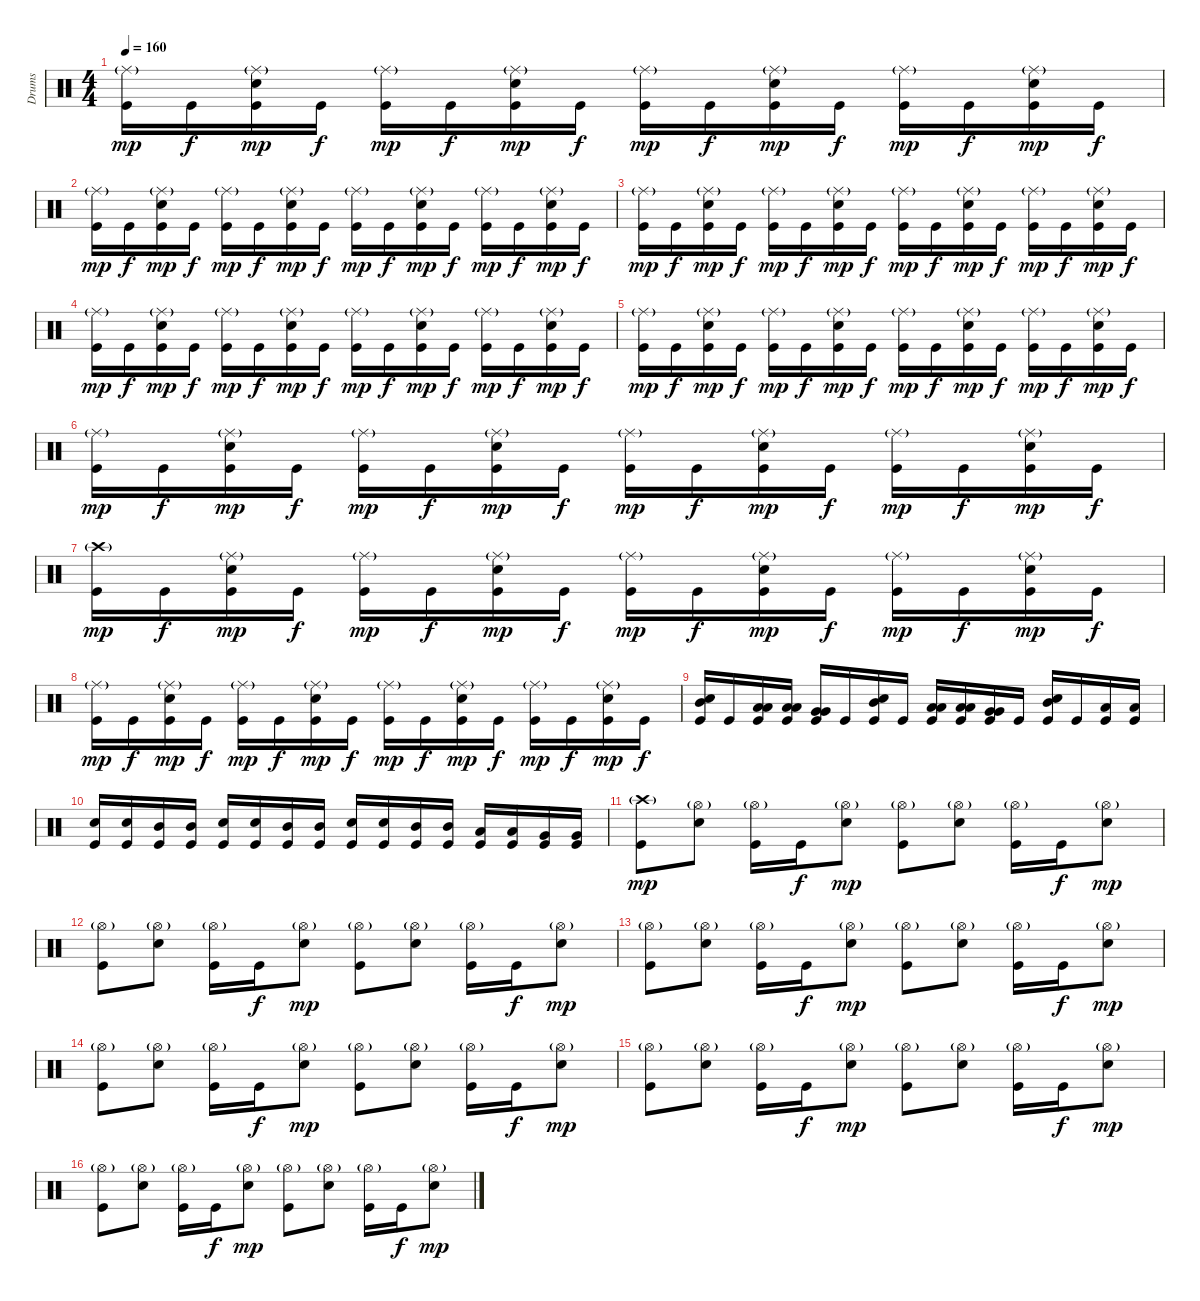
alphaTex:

\track ("Drums" "Drums") {instrument percussion}
\staff {score}
\articulation defaults
\ts (4 4)
\tempo 160
\clef neutral
\ks c
("Ride (middle)"{g} "Kick (hit)").16{dy mp} "Kick (hit)".16{dy f} ("Ride (middle)"{g} "Snare (hit) 2" "Kick (hit)").16{dy mp} "Kick (hit)".16{dy f} ("Ride (middle)"{g} "Kick (hit)").16{dy mp} "Kick (hit)".16{dy f} ("Ride (middle)"{g} "Snare (hit) 2" "Kick (hit)").16{dy mp} "Kick (hit)".16{dy f} ("Ride (middle)"{g} "Kick (hit)").16{dy mp} "Kick (hit)".16{dy f} ("Ride (middle)"{g} "Snare (hit) 2" "Kick (hit)").16{dy mp} "Kick (hit)".16{dy f} ("Ride (middle)"{g} "Kick (hit)").16{dy mp} "Kick (hit)".16{dy f} ("Ride (middle)"{g} "Snare (hit) 2" "Kick (hit)").16{dy mp} "Kick (hit)".16{dy f} |
("Ride (middle)"{g} "Kick (hit)").16{dy mp} "Kick (hit)".16{dy f} ("Ride (middle)"{g} "Snare (hit) 2" "Kick (hit)").16{dy mp} "Kick (hit)".16{dy f} ("Ride (middle)"{g} "Kick (hit)").16{dy mp} "Kick (hit)".16{dy f} ("Ride (middle)"{g} "Snare (hit) 2" "Kick (hit)").16{dy mp} "Kick (hit)".16{dy f} ("Ride (middle)"{g} "Kick (hit)").16{dy mp} "Kick (hit)".16{dy f} ("Ride (middle)"{g} "Snare (hit) 2" "Kick (hit)").16{dy mp} "Kick (hit)".16{dy f} ("Ride (middle)"{g} "Kick (hit)").16{dy mp} "Kick (hit)".16{dy f} ("Ride (middle)"{g} "Snare (hit) 2" "Kick (hit)").16{dy mp} "Kick (hit)".16{dy f} |
("Ride (middle)"{g} "Kick (hit)").16{dy mp} "Kick (hit)".16{dy f} ("Ride (middle)"{g} "Snare (hit) 2" "Kick (hit)").16{dy mp} "Kick (hit)".16{dy f} ("Ride (middle)"{g} "Kick (hit)").16{dy mp} "Kick (hit)".16{dy f} ("Ride (middle)"{g} "Snare (hit) 2" "Kick (hit)").16{dy mp} "Kick (hit)".16{dy f} ("Ride (middle)"{g} "Kick (hit)").16{dy mp} "Kick (hit)".16{dy f} ("Ride (middle)"{g} "Snare (hit) 2" "Kick (hit)").16{dy mp} "Kick (hit)".16{dy f} ("Ride (middle)"{g} "Kick (hit)").16{dy mp} "Kick (hit)".16{dy f} ("Ride (middle)"{g} "Snare (hit) 2" "Kick (hit)").16{dy mp} "Kick (hit)".16{dy f} |
("Ride (middle)"{g} "Kick (hit)").16{dy mp} "Kick (hit)".16{dy f} ("Ride (middle)"{g} "Snare (hit) 2" "Kick (hit)").16{dy mp} "Kick (hit)".16{dy f} ("Ride (middle)"{g} "Kick (hit)").16{dy mp} "Kick (hit)".16{dy f} ("Ride (middle)"{g} "Snare (hit) 2" "Kick (hit)").16{dy mp} "Kick (hit)".16{dy f} ("Ride (middle)"{g} "Kick (hit)").16{dy mp} "Kick (hit)".16{dy f} ("Ride (middle)"{g} "Snare (hit) 2" "Kick (hit)").16{dy mp} "Kick (hit)".16{dy f} ("Ride (middle)"{g} "Kick (hit)").16{dy mp} "Kick (hit)".16{dy f} ("Ride (middle)"{g} "Snare (hit) 2" "Kick (hit)").16{dy mp} "Kick (hit)".16{dy f} |
("Ride (middle)"{g} "Kick (hit)").16{dy mp} "Kick (hit)".16{dy f} ("Ride (middle)"{g} "Snare (hit) 2" "Kick (hit)").16{dy mp} "Kick (hit)".16{dy f} ("Ride (middle)"{g} "Kick (hit)").16{dy mp} "Kick (hit)".16{dy f} ("Ride (middle)"{g} "Snare (hit) 2" "Kick (hit)").16{dy mp} "Kick (hit)".16{dy f} ("Ride (middle)"{g} "Kick (hit)").16{dy mp} "Kick (hit)".16{dy f} ("Ride (middle)"{g} "Snare (hit) 2" "Kick (hit)").16{dy mp} "Kick (hit)".16{dy f} ("Ride (middle)"{g} "Kick (hit)").16{dy mp} "Kick (hit)".16{dy f} ("Ride (middle)"{g} "Snare (hit) 2" "Kick (hit)").16{dy mp} "Kick (hit)".16{dy f} |
("Ride (middle)"{g} "Kick (hit)").16{dy mp} "Kick (hit)".16{dy f} ("Ride (middle)"{g} "Snare (hit) 2" "Kick (hit)").16{dy mp} "Kick (hit)".16{dy f} ("Ride (middle)"{g} "Kick (hit)").16{dy mp} "Kick (hit)".16{dy f} ("Ride (middle)"{g} "Snare (hit) 2" "Kick (hit)").16{dy mp} "Kick (hit)".16{dy f} ("Ride (middle)"{g} "Kick (hit)").16{dy mp} "Kick (hit)".16{dy f} ("Ride (middle)"{g} "Snare (hit) 2" "Kick (hit)").16{dy mp} "Kick (hit)".16{dy f} ("Ride (middle)"{g} "Kick (hit)").16{dy mp} "Kick (hit)".16{dy f} ("Ride (middle)"{g} "Snare (hit) 2" "Kick (hit)").16{dy mp} "Kick (hit)".16{dy f} |
("Crash high (hit)"{g} "Kick (hit)").16{dy mp} "Kick (hit)".16{dy f} ("Ride (middle)"{g} "Snare (hit) 2" "Kick (hit)").16{dy mp} "Kick (hit)".16{dy f} ("Ride (middle)"{g} "Kick (hit)").16{dy mp} "Kick (hit)".16{dy f} ("Ride (middle)"{g} "Snare (hit) 2" "Kick (hit)").16{dy mp} "Kick (hit)".16{dy f} ("Ride (middle)"{g} "Kick (hit)").16{dy mp} "Kick (hit)".16{dy f} ("Ride (middle)"{g} "Snare (hit) 2" "Kick (hit)").16{dy mp} "Kick (hit)".16{dy f} ("Ride (middle)"{g} "Kick (hit)").16{dy mp} "Kick (hit)".16{dy f} ("Ride (middle)"{g} "Snare (hit) 2" "Kick (hit)").16{dy mp} "Kick (hit)".16{dy f} |
("Ride (middle)"{g} "Kick (hit)").16{dy mp} "Kick (hit)".16{dy f} ("Ride (middle)"{g} "Snare (hit) 2" "Kick (hit)").16{dy mp} "Kick (hit)".16{dy f} ("Ride (middle)"{g} "Kick (hit)").16{dy mp} "Kick (hit)".16{dy f} ("Ride (middle)"{g} "Snare (hit) 2" "Kick (hit)").16{dy mp} "Kick (hit)".16{dy f} ("Ride (middle)"{g} "Kick (hit)").16{dy mp} "Kick (hit)".16{dy f} ("Ride (middle)"{g} "Snare (hit) 2" "Kick (hit)").16{dy mp} "Kick (hit)".16{dy f} ("Ride (middle)"{g} "Kick (hit)").16{dy mp} "Kick (hit)".16{dy f} ("Ride (middle)"{g} "Snare (hit) 2" "Kick (hit)").16{dy mp} "Kick (hit)".16{dy f} |
("Snare (hit) 2" "Mid Tom (hit)" "Kick (hit)").16 "Kick (hit)".16 ("Low Tom (hit)" "Low Tom (hit)" "Kick (hit)").16 ("Low Tom (hit)" "Low Tom (hit)" "Kick (hit)").16 ("Very Low Tom (hit)" "Very Low Tom (hit)" "Kick (hit)").16 "Kick (hit)".16 ("Snare (hit) 2" "Mid Tom (hit)" "Kick (hit)").16 "Kick (hit)".16 ("Low Tom (hit)" "Low Tom (hit)" "Kick (hit)").16 ("Low Tom (hit)" "Low Tom (hit)" "Kick (hit)").16 ("Very Low Tom (hit)" "Very Low Tom (hit)" "Kick (hit)").16 "Kick (hit)".16 ("Snare (hit) 2" "Mid Tom (hit)" "Kick (hit)").16 "Kick (hit)".16 ("Low Tom (hit)" "Kick (hit)").16 ("Low Tom (hit)" "Kick (hit)").16 |
("Snare (hit) 2" "Kick (hit)").16 ("Snare (hit) 2" "Kick (hit)").16 ("Mid Tom (hit)" "Kick (hit)").16 ("Mid Tom (hit)" "Kick (hit)").16 ("Snare (hit) 2" "Kick (hit)").16 ("Snare (hit) 2" "Kick (hit)").16 ("Mid Tom (hit)" "Kick (hit)").16 ("Mid Tom (hit)" "Kick (hit)").16 ("Snare (hit) 2" "Kick (hit)").16 ("Snare (hit) 2" "Kick (hit)").16 ("Mid Tom (hit)" "Kick (hit)").16 ("Mid Tom (hit)" "Kick (hit)").16 ("Low Tom (hit)" "Kick (hit)").16 ("Low Tom (hit)" "Kick (hit)").16 ("Very Low Tom (hit)" "Kick (hit)").16 ("Very Low Tom (hit)" "Kick (hit)").16 |
("Crash high (hit)"{g} "Kick (hit)").8{dy mp} ("Hi-Hat (open)"{g} "Snare (hit) 2").8 ("Hi-Hat (open)"{g} "Kick (hit)").16 "Kick (hit)".16{dy f} ("Hi-Hat (open)"{g} "Snare (hit) 2").8{dy mp} ("Hi-Hat (open)"{g} "Kick (hit)").8 ("Hi-Hat (open)"{g} "Snare (hit) 2").8 ("Hi-Hat (open)"{g} "Kick (hit)").16 "Kick (hit)".16{dy f} ("Hi-Hat (open)"{g} "Snare (hit) 2").8{dy mp} |
("Hi-Hat (open)"{g} "Kick (hit)").8 ("Hi-Hat (open)"{g} "Snare (hit) 2").8 ("Hi-Hat (open)"{g} "Kick (hit)").16 "Kick (hit)".16{dy f} ("Hi-Hat (open)"{g} "Snare (hit) 2").8{dy mp} ("Hi-Hat (open)"{g} "Kick (hit)").8 ("Hi-Hat (open)"{g} "Snare (hit) 2").8 ("Hi-Hat (open)"{g} "Kick (hit)").16 "Kick (hit)".16{dy f} ("Hi-Hat (open)"{g} "Snare (hit) 2").8{dy mp} |
("Hi-Hat (open)"{g} "Kick (hit)").8 ("Hi-Hat (open)"{g} "Snare (hit) 2").8 ("Hi-Hat (open)"{g} "Kick (hit)").16 "Kick (hit)".16{dy f} ("Hi-Hat (open)"{g} "Snare (hit) 2").8{dy mp} ("Hi-Hat (open)"{g} "Kick (hit)").8 ("Hi-Hat (open)"{g} "Snare (hit) 2").8 ("Hi-Hat (open)"{g} "Kick (hit)").16 "Kick (hit)".16{dy f} ("Hi-Hat (open)"{g} "Snare (hit) 2").8{dy mp} |
("Hi-Hat (open)"{g} "Kick (hit)").8 ("Hi-Hat (open)"{g} "Snare (hit) 2").8 ("Hi-Hat (open)"{g} "Kick (hit)").16 "Kick (hit)".16{dy f} ("Hi-Hat (open)"{g} "Snare (hit) 2").8{dy mp} ("Hi-Hat (open)"{g} "Kick (hit)").8 ("Hi-Hat (open)"{g} "Snare (hit) 2").8 ("Hi-Hat (open)"{g} "Kick (hit)").16 "Kick (hit)".16{dy f} ("Hi-Hat (open)"{g} "Snare (hit) 2").8{dy mp} |
("Hi-Hat (open)"{g} "Kick (hit)").8 ("Hi-Hat (open)"{g} "Snare (hit) 2").8 ("Hi-Hat (open)"{g} "Kick (hit)").16 "Kick (hit)".16{dy f} ("Hi-Hat (open)"{g} "Snare (hit) 2").8{dy mp} ("Hi-Hat (open)"{g} "Kick (hit)").8 ("Hi-Hat (open)"{g} "Snare (hit) 2").8 ("Hi-Hat (open)"{g} "Kick (hit)").16 "Kick (hit)".16{dy f} ("Hi-Hat (open)"{g} "Snare (hit) 2").8{dy mp} |
("Hi-Hat (open)"{g} "Kick (hit)").8 ("Hi-Hat (open)"{g} "Snare (hit) 2").8 ("Hi-Hat (open)"{g} "Kick (hit)").16 "Kick (hit)".16{dy f} ("Hi-Hat (open)"{g} "Snare (hit) 2").8{dy mp} ("Hi-Hat (open)"{g} "Kick (hit)").8 ("Hi-Hat (open)"{g} "Snare (hit) 2").8 ("Hi-Hat (open)"{g} "Kick (hit)").16 "Kick (hit)".16{dy f} ("Hi-Hat (open)"{g} "Snare (hit) 2").8{dy mp}
